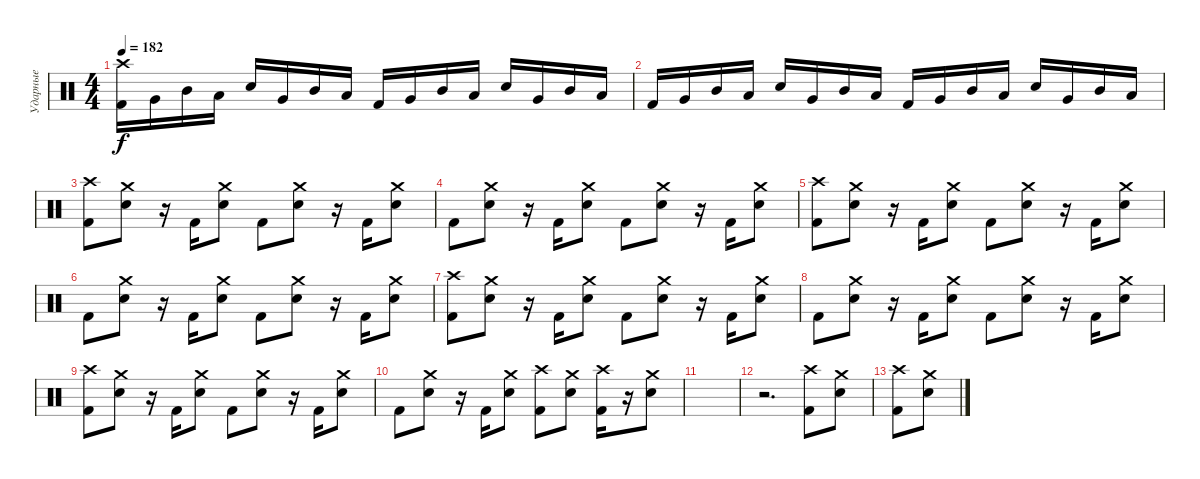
\track ("Ударные" "Ударные") {instrument percussion}
\staff {score}
\articulation defaults
\ts (4 4)
\tempo 182
\clef neutral
\ks c
("Crash high (hit)" "Kick (hit) 2").16{dy f} "Very Low Tom (hit)".16 "Mid Tom (hit)".16 "Low Floor Tom (hit)".16 "Electric Snare (hit)".16 "Very Low Tom (hit)".16 "Mid Tom (hit)".16 "Low Floor Tom (hit)".16 "Kick (hit) 2".16 "Very Low Tom (hit)".16 "Mid Tom (hit)".16 "Low Floor Tom (hit)".16 "Electric Snare (hit)".16 "Very Low Tom (hit)".16 "Mid Tom (hit)".16 "Low Floor Tom (hit)".16 |
"Kick (hit) 2".16 "Very Low Tom (hit)".16 "Mid Tom (hit)".16 "Low Floor Tom (hit)".16 "Electric Snare (hit)".16 "Very Low Tom (hit)".16 "Mid Tom (hit)".16 "Low Floor Tom (hit)".16 "Kick (hit) 2".16 "Very Low Tom (hit)".16 "Mid Tom (hit)".16 "Low Floor Tom (hit)".16 "Electric Snare (hit)".16 "Very Low Tom (hit)".16 "Mid Tom (hit)".16 "Low Floor Tom (hit)".16 |
("Crash high (hit)" "Kick (hit) 2").8 ("Crash medium (hit)" "Electric Snare (hit)").8 r.16 "Kick (hit) 2".16 ("Crash medium (hit)" "Electric Snare (hit)").8 "Kick (hit) 2".8 ("Crash medium (hit)" "Electric Snare (hit)").8 r.16 "Kick (hit) 2".16 ("Crash medium (hit)" "Electric Snare (hit)").8 |
"Kick (hit) 2".8 ("Crash medium (hit)" "Electric Snare (hit)").8 r.16 "Kick (hit) 2".16 ("Crash medium (hit)" "Electric Snare (hit)").8 "Kick (hit) 2".8 ("Crash medium (hit)" "Electric Snare (hit)").8 r.16 "Kick (hit) 2".16 ("Crash medium (hit)" "Electric Snare (hit)").8 |
("Crash high (hit)" "Kick (hit) 2").8 ("Crash medium (hit)" "Electric Snare (hit)").8 r.16 "Kick (hit) 2".16 ("Crash medium (hit)" "Electric Snare (hit)").8 "Kick (hit) 2".8 ("Crash medium (hit)" "Electric Snare (hit)").8 r.16 "Kick (hit) 2".16 ("Crash medium (hit)" "Electric Snare (hit)").8 |
"Kick (hit) 2".8 ("Crash medium (hit)" "Electric Snare (hit)").8 r.16 "Kick (hit) 2".16 ("Crash medium (hit)" "Electric Snare (hit)").8 "Kick (hit) 2".8 ("Crash medium (hit)" "Electric Snare (hit)").8 r.16 "Kick (hit) 2".16 ("Crash medium (hit)" "Electric Snare (hit)").8 |
("Crash high (hit)" "Kick (hit) 2").8 ("Crash medium (hit)" "Electric Snare (hit)").8 r.16 "Kick (hit) 2".16 ("Crash medium (hit)" "Electric Snare (hit)").8 "Kick (hit) 2".8 ("Crash medium (hit)" "Electric Snare (hit)").8 r.16 "Kick (hit) 2".16 ("Crash medium (hit)" "Electric Snare (hit)").8 |
"Kick (hit) 2".8 ("Crash medium (hit)" "Electric Snare (hit)").8 r.16 "Kick (hit) 2".16 ("Crash medium (hit)" "Electric Snare (hit)").8 "Kick (hit) 2".8 ("Crash medium (hit)" "Electric Snare (hit)").8 r.16 "Kick (hit) 2".16 ("Crash medium (hit)" "Electric Snare (hit)").8 |
("Crash high (hit)" "Kick (hit) 2").8 ("Crash medium (hit)" "Electric Snare (hit)").8 r.16 "Kick (hit) 2".16 ("Crash medium (hit)" "Electric Snare (hit)").8 "Kick (hit) 2".8 ("Crash medium (hit)" "Electric Snare (hit)").8 r.16 "Kick (hit) 2".16 ("Crash medium (hit)" "Electric Snare (hit)").8 |
"Kick (hit) 2".8 ("Crash medium (hit)" "Electric Snare (hit)").8 r.16 "Kick (hit) 2".16 ("Crash medium (hit)" "Electric Snare (hit)").8 ("Crash high (hit)" "Kick (hit) 2").8 ("Crash medium (hit)" "Electric Snare (hit)").8 ("Crash high (hit)" "Kick (hit) 2").16 r.16 ("Crash medium (hit)" "Electric Snare (hit)").8 |
|
r.2{d} ("Crash high (hit)" "Kick (hit) 2").8 ("Crash medium (hit)" "Electric Snare (hit)").8 |
("Crash high (hit)" "Kick (hit) 2").8 ("Crash medium (hit)" "Electric Snare (hit)").8
